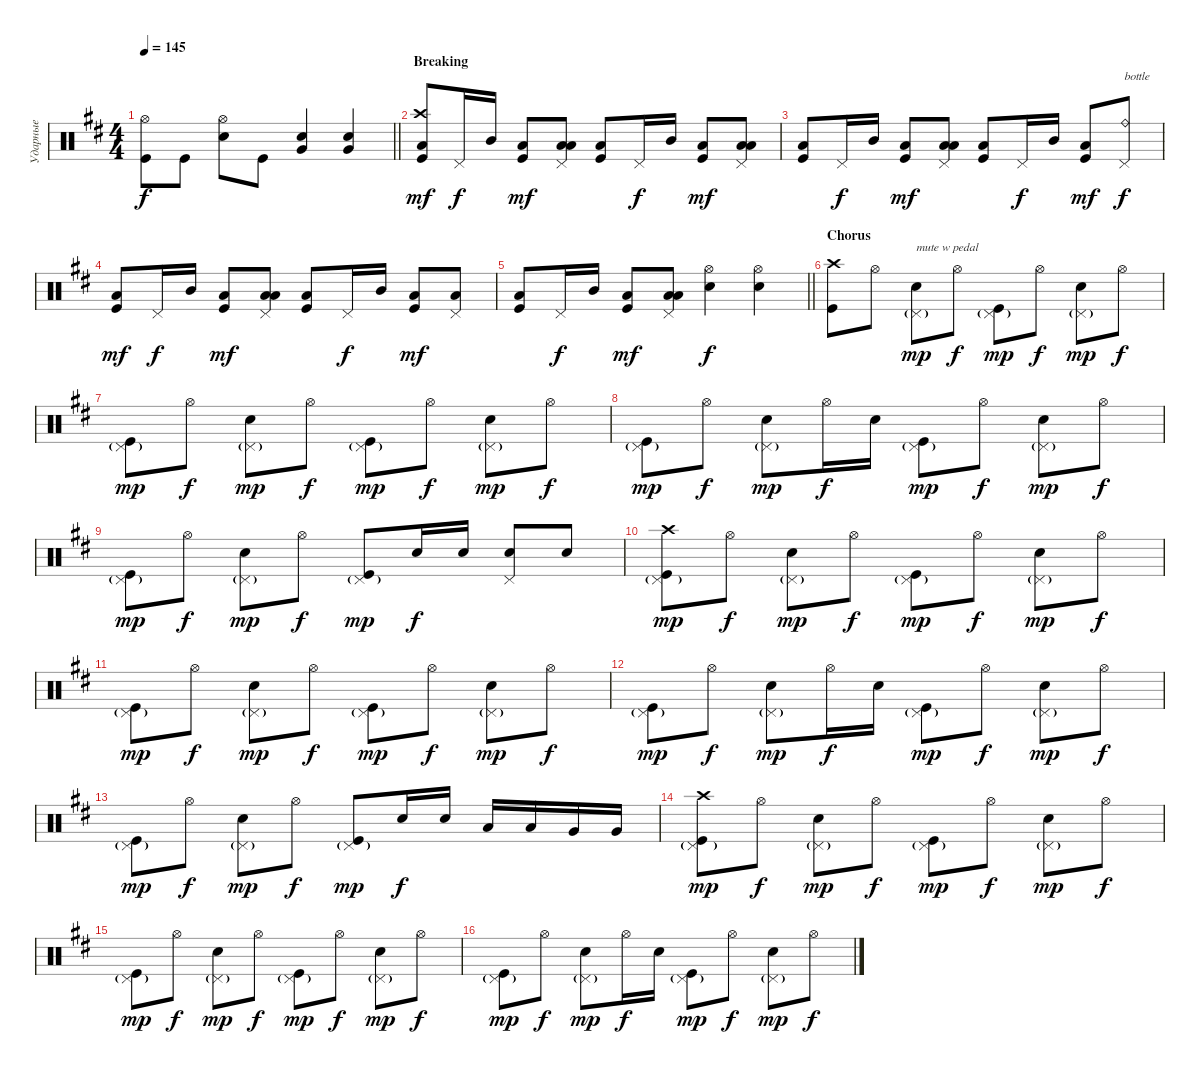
\track ("Ударные" "Ударные") {instrument percussion}
\staff {score}
\articulation defaults
\ts (4 4)
\tempo 145
\clef neutral
\barLineRight lightlight
\ks bminor
("Kick (hit)" "Hi-Hat (open)").8{dy f} "Kick (hit)".8 ("Snare (hit) 2" "Hi-Hat (open)").8 "Kick (hit)".8 ("Snare (hit) 2" "Very Low Tom (hit)").4{bd 120} ("Snare (hit) 2" "Very Low Tom (hit)").4{bd 120} |
\section ("" "Breaking")
("Kick (hit)" "Crash high (hit)" "Low Floor Tom (hit)").8{dy mf} "Pedal Hi-Hat (hit)".16{dy f} "Mid Tom (hit)".16 ("Kick (hit)" "Low Floor Tom (hit)").8{bd 120 dy mf} ("Pedal Hi-Hat (hit)" "Low Tom (hit)" "Low Floor Tom (hit)").8{bd 120} ("Kick (hit)" "Low Floor Tom (hit)").8{bd 120} "Pedal Hi-Hat (hit)".16{dy f} "Mid Tom (hit)".16 ("Kick (hit)" "Low Floor Tom (hit)").8{bd 120 dy mf} ("Pedal Hi-Hat (hit)" "Low Tom (hit)" "Low Floor Tom (hit)").8{bd 120} |
("Kick (hit)" "Low Floor Tom (hit)").8{bd 120} "Pedal Hi-Hat (hit)".16{dy f} "Mid Tom (hit)".16 ("Kick (hit)" "Low Floor Tom (hit)").8{bd 120 dy mf} ("Pedal Hi-Hat (hit)" "Low Tom (hit)" "Low Floor Tom (hit)").8{bd 120} ("Kick (hit)" "Low Floor Tom (hit)").8{bd 120} "Pedal Hi-Hat (hit)".16{dy f} "Mid Tom (hit)".16 ("Kick (hit)" "Low Floor Tom (hit)").8{bd 120 dy mf} ("Pedal Hi-Hat (hit)" "Ride (bell)").8{txt "bottle" dy f} |
("Kick (hit)" "Low Floor Tom (hit)").8{bd 120 dy mf} "Pedal Hi-Hat (hit)".16{dy f} "Mid Tom (hit)".16 ("Kick (hit)" "Low Floor Tom (hit)").8{bd 120 dy mf} ("Pedal Hi-Hat (hit)" "Low Tom (hit)" "Low Floor Tom (hit)").8{bd 120} ("Kick (hit)" "Low Floor Tom (hit)").8{bd 120} "Pedal Hi-Hat (hit)".16{dy f} "Mid Tom (hit)".16 ("Kick (hit)" "Low Floor Tom (hit)").8{bd 120 dy mf} ("Pedal Hi-Hat (hit)" "Low Floor Tom (hit)").8 |
\barLineRight lightlight
("Kick (hit)" "Low Floor Tom (hit)").8{bd 120} "Pedal Hi-Hat (hit)".16{dy f} "Mid Tom (hit)".16 ("Kick (hit)" "Low Floor Tom (hit)").8{bd 120 dy mf} ("Pedal Hi-Hat (hit)" "Low Tom (hit)" "Low Floor Tom (hit)").8{bd 120} ("Snare (hit) 2" "Hi-Hat (open)").4{dy f} ("Snare (hit) 2" "Hi-Hat (open)").4 |
\section ("" "Chorus")
("Kick (hit)" "Crash high (hit)").8 "Hi-Hat (open)".8 ("Snare (hit) 2" "Pedal Hi-Hat (hit)"{g}).8{txt "mute w pedal" dy mp} "Hi-Hat (open)".8{dy f} ("Pedal Hi-Hat (hit)"{g} "Kick (hit)").8{dy mp} "Hi-Hat (open)".8{dy f} ("Snare (hit) 2" "Pedal Hi-Hat (hit)"{g}).8{dy mp} "Hi-Hat (open)".8{dy f} |
("Pedal Hi-Hat (hit)"{g} "Kick (hit)").8{dy mp} "Hi-Hat (open)".8{dy f} ("Snare (hit) 2" "Pedal Hi-Hat (hit)"{g}).8{dy mp} "Hi-Hat (open)".8{dy f} ("Pedal Hi-Hat (hit)"{g} "Kick (hit)").8{dy mp} "Hi-Hat (open)".8{dy f} ("Snare (hit) 2" "Pedal Hi-Hat (hit)"{g}).8{dy mp} "Hi-Hat (open)".8{dy f} |
("Pedal Hi-Hat (hit)"{g} "Kick (hit)").8{dy mp} "Hi-Hat (open)".8{dy f} ("Snare (hit) 2" "Pedal Hi-Hat (hit)"{g}).8{dy mp} "Hi-Hat (open)".16{dy f} "Snare (hit) 2".16 ("Pedal Hi-Hat (hit)"{g} "Kick (hit)").8{dy mp} "Hi-Hat (open)".8{dy f} ("Snare (hit) 2" "Pedal Hi-Hat (hit)"{g}).8{dy mp} "Hi-Hat (open)".8{dy f} |
("Pedal Hi-Hat (hit)"{g} "Kick (hit)").8{dy mp} "Hi-Hat (open)".8{dy f} ("Snare (hit) 2" "Pedal Hi-Hat (hit)"{g}).8{dy mp} "Hi-Hat (open)".8{dy f} ("Pedal Hi-Hat (hit)"{g} "Kick (hit)").8{dy mp} "Snare (hit) 2".16{dy f} "Snare (hit) 2".16 ("Snare (hit) 2" "Pedal Hi-Hat (hit)").8 "Snare (hit) 2".8 |
("Pedal Hi-Hat (hit)"{g} "Kick (hit)" "Crash high (hit)").8{dy mp} "Hi-Hat (open)".8{dy f} ("Snare (hit) 2" "Pedal Hi-Hat (hit)"{g}).8{dy mp} "Hi-Hat (open)".8{dy f} ("Pedal Hi-Hat (hit)"{g} "Kick (hit)").8{dy mp} "Hi-Hat (open)".8{dy f} ("Snare (hit) 2" "Pedal Hi-Hat (hit)"{g}).8{dy mp} "Hi-Hat (open)".8{dy f} |
("Pedal Hi-Hat (hit)"{g} "Kick (hit)").8{dy mp} "Hi-Hat (open)".8{dy f} ("Snare (hit) 2" "Pedal Hi-Hat (hit)"{g}).8{dy mp} "Hi-Hat (open)".8{dy f} ("Pedal Hi-Hat (hit)"{g} "Kick (hit)").8{dy mp} "Hi-Hat (open)".8{dy f} ("Snare (hit) 2" "Pedal Hi-Hat (hit)"{g}).8{dy mp} "Hi-Hat (open)".8{dy f} |
("Pedal Hi-Hat (hit)"{g} "Kick (hit)").8{dy mp} "Hi-Hat (open)".8{dy f} ("Snare (hit) 2" "Pedal Hi-Hat (hit)"{g}).8{dy mp} "Hi-Hat (open)".16{dy f} "Snare (hit) 2".16 ("Pedal Hi-Hat (hit)"{g} "Kick (hit)").8{dy mp} "Hi-Hat (open)".8{dy f} ("Snare (hit) 2" "Pedal Hi-Hat (hit)"{g}).8{dy mp} "Hi-Hat (open)".8{dy f} |
("Pedal Hi-Hat (hit)"{g} "Kick (hit)").8{dy mp} "Hi-Hat (open)".8{dy f} ("Snare (hit) 2" "Pedal Hi-Hat (hit)"{g}).8{dy mp} "Hi-Hat (open)".8{dy f} ("Pedal Hi-Hat (hit)"{g} "Kick (hit)").8{dy mp} "Snare (hit) 2".16{dy f} "Snare (hit) 2".16 "Low Tom (hit)".16 "Low Tom (hit)".16 "Very Low Tom (hit)".16 "Very Low Tom (hit)".16 |
("Pedal Hi-Hat (hit)"{g} "Kick (hit)" "Crash high (hit)").8{dy mp} "Hi-Hat (open)".8{dy f} ("Snare (hit) 2" "Pedal Hi-Hat (hit)"{g}).8{dy mp} "Hi-Hat (open)".8{dy f} ("Pedal Hi-Hat (hit)"{g} "Kick (hit)").8{dy mp} "Hi-Hat (open)".8{dy f} ("Snare (hit) 2" "Pedal Hi-Hat (hit)"{g}).8{dy mp} "Hi-Hat (open)".8{dy f} |
("Pedal Hi-Hat (hit)"{g} "Kick (hit)").8{dy mp} "Hi-Hat (open)".8{dy f} ("Snare (hit) 2" "Pedal Hi-Hat (hit)"{g}).8{dy mp} "Hi-Hat (open)".8{dy f} ("Pedal Hi-Hat (hit)"{g} "Kick (hit)").8{dy mp} "Hi-Hat (open)".8{dy f} ("Snare (hit) 2" "Pedal Hi-Hat (hit)"{g}).8{dy mp} "Hi-Hat (open)".8{dy f} |
("Pedal Hi-Hat (hit)"{g} "Kick (hit)").8{dy mp} "Hi-Hat (open)".8{dy f} ("Snare (hit) 2" "Pedal Hi-Hat (hit)"{g}).8{dy mp} "Hi-Hat (open)".16{dy f} "Snare (hit) 2".16 ("Pedal Hi-Hat (hit)"{g} "Kick (hit)").8{dy mp} "Hi-Hat (open)".8{dy f} ("Snare (hit) 2" "Pedal Hi-Hat (hit)"{g}).8{dy mp} "Hi-Hat (open)".8{dy f}
